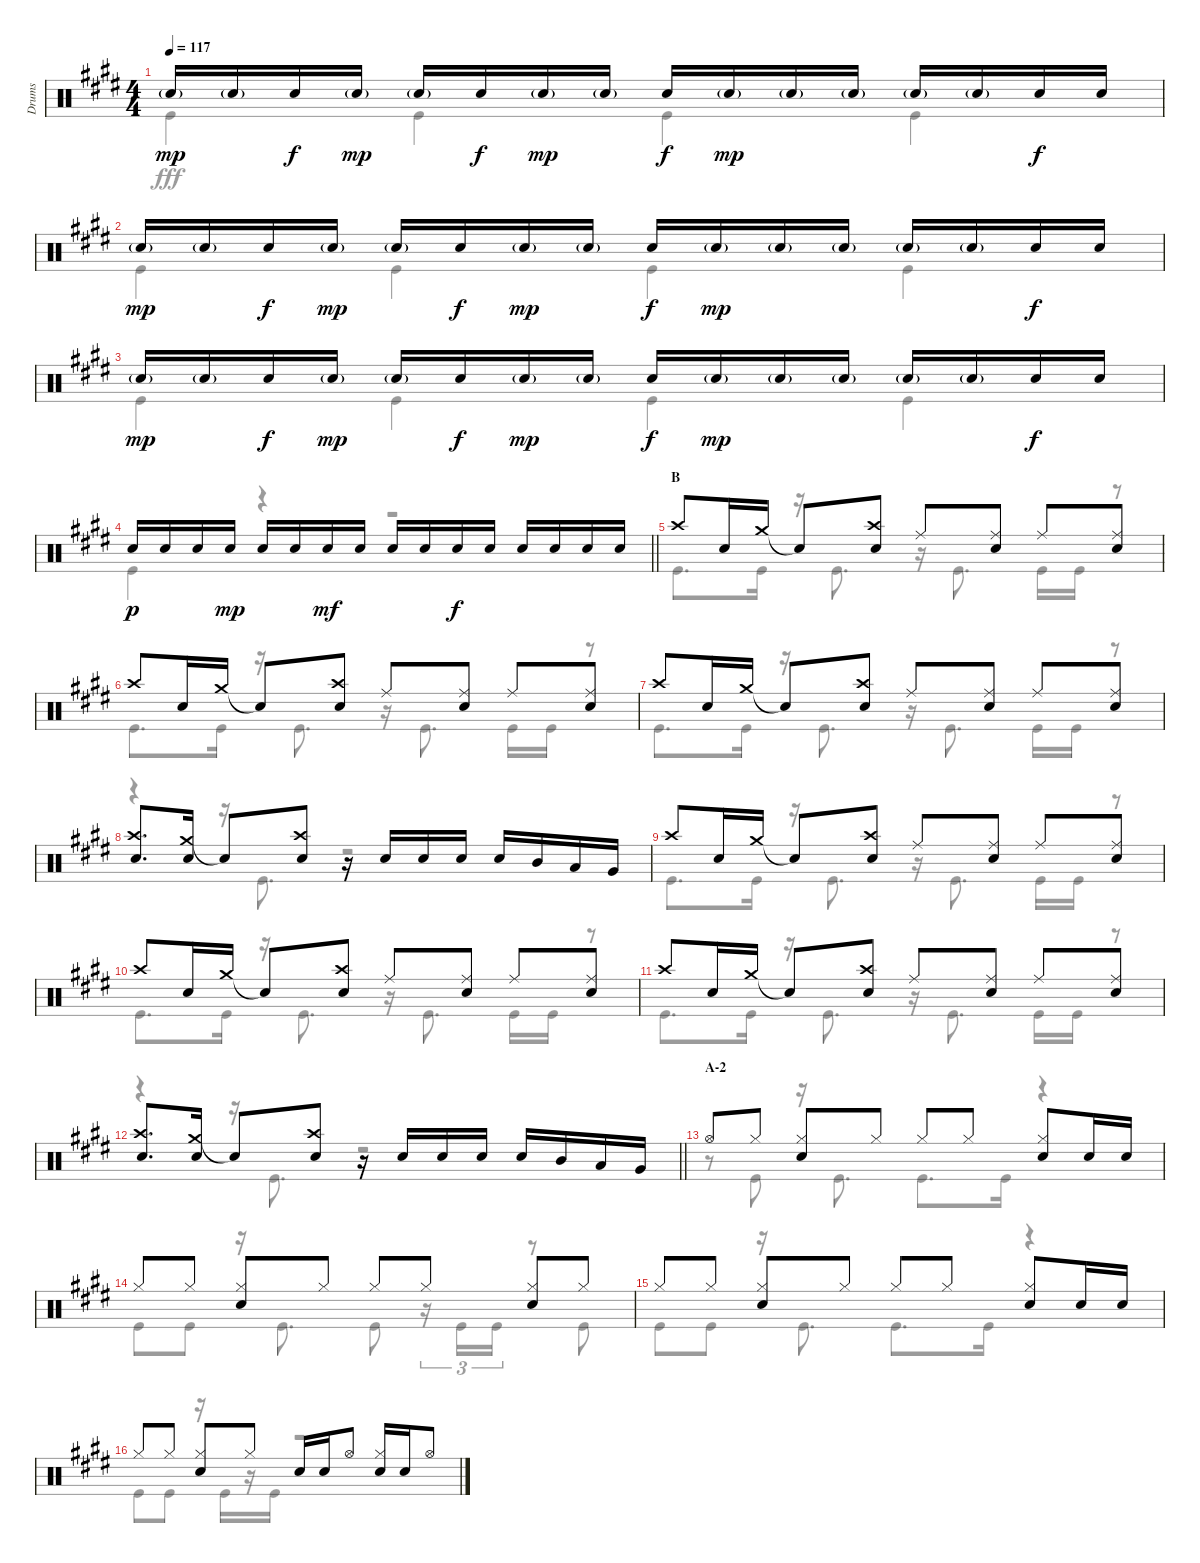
\track ("Drums" "Drums") {instrument percussion}
\staff {score}
\articulation defaults
\voice
\ts (4 4)
\tempo 117
\clef neutral
\ks e "Snare (hit) 2"{g}.16{dy mp} "Snare (hit) 2"{g}.16 "Snare (hit) 2".16{dy f} "Snare (hit) 2"{g}.16{dy mp} "Snare (hit) 2"{g}.16 "Snare (hit) 2".16{dy f} "Snare (hit) 2"{g}.16{dy mp} "Snare (hit) 2"{g}.16 "Snare (hit) 2".16{dy f} "Snare (hit) 2"{g}.16{dy mp} "Snare (hit) 2"{g}.16 "Snare (hit) 2"{g}.16 "Snare (hit) 2"{g}.16 "Snare (hit) 2"{g}.16 "Snare (hit) 2".16{dy f} "Snare (hit) 2".16
|
"Snare (hit) 2"{g}.16{dy mp} "Snare (hit) 2"{g}.16 "Snare (hit) 2".16{dy f} "Snare (hit) 2"{g}.16{dy mp} "Snare (hit) 2"{g}.16 "Snare (hit) 2".16{dy f} "Snare (hit) 2"{g}.16{dy mp} "Snare (hit) 2"{g}.16 "Snare (hit) 2".16{dy f} "Snare (hit) 2"{g}.16{dy mp} "Snare (hit) 2"{g}.16 "Snare (hit) 2"{g}.16 "Snare (hit) 2"{g}.16 "Snare (hit) 2"{g}.16 "Snare (hit) 2".16{dy f} "Snare (hit) 2".16 |
"Snare (hit) 2"{g}.16{dy mp} "Snare (hit) 2"{g}.16 "Snare (hit) 2".16{dy f} "Snare (hit) 2"{g}.16{dy mp} "Snare (hit) 2"{g}.16 "Snare (hit) 2".16{dy f} "Snare (hit) 2"{g}.16{dy mp} "Snare (hit) 2"{g}.16 "Snare (hit) 2".16{dy f} "Snare (hit) 2"{g}.16{dy mp} "Snare (hit) 2"{g}.16 "Snare (hit) 2"{g}.16 "Snare (hit) 2"{g}.16 "Snare (hit) 2"{g}.16 "Snare (hit) 2".16{dy f} "Snare (hit) 2".16 |
\barLineRight lightlight "Snare (hit) 2".16{dy p} "Snare (hit) 2".16 "Snare (hit) 2".16 "Snare (hit) 2".16{dy mp} "Snare (hit) 2".16 "Snare (hit) 2".16 "Snare (hit) 2".16{dy mf} "Snare (hit) 2".16 "Snare (hit) 2".16 "Snare (hit) 2".16 "Snare (hit) 2".16{dy f} "Snare (hit) 2".16 "Snare (hit) 2".16 "Snare (hit) 2".16 "Snare (hit) 2".16 "Snare (hit) 2".16
|
\section ("" "B")
"Crash high (hit)".8 "Snare (hit) 2".16 "Crash medium (hit)".16 "Snare (hit)"{t}.8 ("Crash high (hit)" "Snare (hit) 2").8 "Ride (middle)".8 ("Ride (middle)" "Snare (hit) 2").8 "Ride (middle)".8 ("Ride (middle)" "Snare (hit) 2").8 |
"Crash high (hit)".8 "Snare (hit) 2".16 "Crash medium (hit)".16 "Snare (hit)"{t}.8 ("Crash high (hit)" "Snare (hit) 2").8 "Ride (middle)".8 ("Ride (middle)" "Snare (hit) 2").8 "Ride (middle)".8 ("Ride (middle)" "Snare (hit) 2").8 |
"Crash high (hit)".8 "Snare (hit) 2".16 "Crash medium (hit)".16 "Snare (hit)"{t}.8 ("Crash high (hit)" "Snare (hit) 2").8 "Ride (middle)".8 ("Ride (middle)" "Snare (hit) 2").8 "Ride (middle)".8 ("Ride (middle)" "Snare (hit) 2").8 |
("Crash high (hit)" "Snare (hit) 2").8{d} ("Crash medium (hit)" "Snare (hit) 2").16 "Snare (hit)"{t}.8 ("Crash high (hit)" "Snare (hit) 2").8 r.16 "Snare (hit) 2".16 "Snare (hit) 2".16 "Snare (hit) 2".16 "Snare (hit) 2".16 "Mid Tom (hit)".16 "Low Tom (hit)".16 "Very Low Tom (hit)".16 |
"Crash high (hit)".8 "Snare (hit) 2".16 "Crash medium (hit)".16 "Snare (hit)"{t}.8 ("Crash high (hit)" "Snare (hit) 2").8 "Ride (middle)".8 ("Ride (middle)" "Snare (hit) 2").8 "Ride (middle)".8 ("Ride (middle)" "Snare (hit) 2").8 |
"Crash high (hit)".8 "Snare (hit) 2".16 "Crash medium (hit)".16 "Snare (hit)"{t}.8 ("Crash high (hit)" "Snare (hit) 2").8 "Ride (middle)".8 ("Ride (middle)" "Snare (hit) 2").8 "Ride (middle)".8 ("Ride (middle)" "Snare (hit) 2").8 |
"Crash high (hit)".8 "Snare (hit) 2".16 "Crash medium (hit)".16 "Snare (hit)"{t}.8 ("Crash high (hit)" "Snare (hit) 2").8 "Ride (middle)".8 ("Ride (middle)" "Snare (hit) 2").8 "Ride (middle)".8 ("Ride (middle)" "Snare (hit) 2").8 |
\barLineRight lightlight
("Crash high (hit)" "Snare (hit) 2").8{d} ("Crash medium (hit)" "Snare (hit) 2").16 "Snare (hit)"{t}.8 ("Crash high (hit)" "Snare (hit) 2").8 r.16 "Snare (hit) 2".16 "Snare (hit) 2".16 "Snare (hit) 2".16 "Snare (hit) 2".16 "Mid Tom (hit)".16 "Low Tom (hit)".16 "Very Low Tom (hit)".16 |
\section ("" "A-2")
"Hi-Hat (open)".8 "Hi-Hat (closed)".8 ("Hi-Hat (closed)" "Snare (hit) 2").8 "Hi-Hat (closed)".8 "Hi-Hat (closed)".8 "Hi-Hat (closed)".8 ("Hi-Hat (closed)" "Snare (hit) 2").8 "Snare (hit) 2".16 "Snare (hit) 2".16 |
"Hi-Hat (closed)".8 "Hi-Hat (closed)".8 ("Hi-Hat (closed)" "Snare (hit) 2").8 "Hi-Hat (closed)".8 "Hi-Hat (closed)".8 "Hi-Hat (closed)".8 ("Hi-Hat (closed)" "Snare (hit) 2").8 "Hi-Hat (closed)".8 |
"Hi-Hat (closed)".8 "Hi-Hat (closed)".8 ("Hi-Hat (closed)" "Snare (hit) 2").8 "Hi-Hat (closed)".8 "Hi-Hat (closed)".8 "Hi-Hat (closed)".8 ("Hi-Hat (closed)" "Snare (hit) 2").8 "Snare (hit) 2".16 "Snare (hit) 2".16 |
"Hi-Hat (closed)".8 "Hi-Hat (closed)".8 ("Hi-Hat (closed)" "Snare (hit) 2").8 "Hi-Hat (closed)".8 "Snare (hit) 2".16 "Snare (hit) 2".16 "Hi-Hat (open)".8 ("Hi-Hat (closed)" "Snare (hit) 2").16 "Snare (hit) 2".16 "Hi-Hat (open)".8
\voice
\clef neutral
\ottava regular
\simile none
\ks e "Kick (hit)".4{dy fff} "Kick (hit)".4 "Kick (hit)".4 "Kick (hit)".4
|
"Kick (hit)".4 "Kick (hit)".4 "Kick (hit)".4 "Kick (hit)".4 |
"Kick (hit)".4 "Kick (hit)".4 "Kick (hit)".4 "Kick (hit)".4 |
\barLineRight lightlight "Kick (hit)".4
r.4 r.2 |
"Kick (hit)".8{d} "Kick (hit)".16 r.16 "Kick (hit)".8{d} r.16 "Kick (hit)".8{d} "Kick (hit)".16 "Kick (hit)".16 r.8 |
"Kick (hit)".8{d} "Kick (hit)".16 r.16 "Kick (hit)".8{d} r.16 "Kick (hit)".8{d} "Kick (hit)".16 "Kick (hit)".16 r.8 |
"Kick (hit)".8{d} "Kick (hit)".16 r.16 "Kick (hit)".8{d} r.16 "Kick (hit)".8{d} "Kick (hit)".16 "Kick (hit)".16 r.8 |
r.4 r.16 "Kick (hit)".8{d} r.2 |
"Kick (hit)".8{d} "Kick (hit)".16 r.16 "Kick (hit)".8{d} r.16 "Kick (hit)".8{d} "Kick (hit)".16 "Kick (hit)".16 r.8 |
"Kick (hit)".8{d} "Kick (hit)".16 r.16 "Kick (hit)".8{d} r.16 "Kick (hit)".8{d} "Kick (hit)".16 "Kick (hit)".16 r.8 |
"Kick (hit)".8{d} "Kick (hit)".16 r.16 "Kick (hit)".8{d} r.16 "Kick (hit)".8{d} "Kick (hit)".16 "Kick (hit)".16 r.8 |
\barLineRight lightlight
r.4 r.16 "Kick (hit)".8{d} r.2 |
r.8 "Kick (hit)".8 r.16 "Kick (hit)".8{d} "Kick (hit)".8{d} "Kick (hit)".16 r.4 |
"Kick (hit)".8 "Kick (hit)".8 r.16 "Kick (hit)".8{d} "Kick (hit)".8 r.16{tu (3 2)} "Kick (hit)".16{tu (3 2)} "Kick (hit)".16{tu (3 2)} r.8 "Kick (hit)".8 |
"Kick (hit)".8 "Kick (hit)".8 r.16 "Kick (hit)".8{d} "Kick (hit)".8{d} "Kick (hit)".16 r.4 |
"Kick (hit)".8 "Kick (hit)".8 r.16 "Kick (hit)".16 r.16 "Kick (hit)".16 r.2
